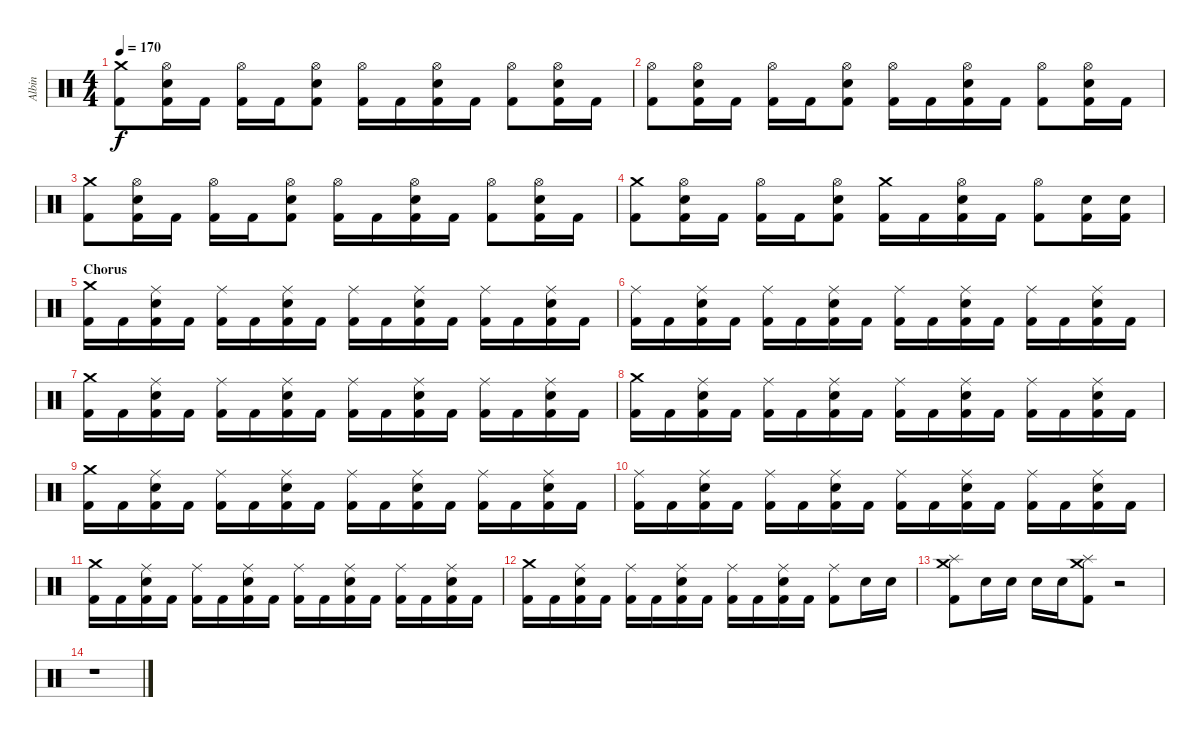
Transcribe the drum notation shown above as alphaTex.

\track ("Albin" "Albin") {instrument percussion}
\staff {score}
\articulation defaults
\ts (4 4)
\tempo 170
\clef neutral
\ks c
("Crash medium (hit)" "Kick (hit) 2").8{dy f} ("Hi-Hat (open)" "Electric Snare (hit)" "Kick (hit) 2").16 "Kick (hit) 2".16 ("Hi-Hat (open)" "Kick (hit) 2").16 "Kick (hit) 2".16 ("Hi-Hat (open)" "Electric Snare (hit)" "Kick (hit) 2").8 ("Hi-Hat (open)" "Kick (hit) 2").16 "Kick (hit) 2".16 ("Hi-Hat (open)" "Electric Snare (hit)" "Kick (hit) 2").16 "Kick (hit) 2".16 ("Hi-Hat (open)" "Kick (hit) 2").8 ("Hi-Hat (open)" "Electric Snare (hit)" "Kick (hit) 2").16 "Kick (hit) 2".16 |
("Hi-Hat (open)" "Kick (hit) 2").8 ("Hi-Hat (open)" "Electric Snare (hit)" "Kick (hit) 2").16 "Kick (hit) 2".16 ("Hi-Hat (open)" "Kick (hit) 2").16 "Kick (hit) 2".16 ("Hi-Hat (open)" "Electric Snare (hit)" "Kick (hit) 2").8 ("Hi-Hat (open)" "Kick (hit) 2").16 "Kick (hit) 2".16 ("Hi-Hat (open)" "Electric Snare (hit)" "Kick (hit) 2").16 "Kick (hit) 2".16 ("Hi-Hat (open)" "Kick (hit) 2").8 ("Hi-Hat (open)" "Electric Snare (hit)" "Kick (hit) 2").16 "Kick (hit) 2".16 |
("Crash medium (hit)" "Kick (hit) 2").8 ("Hi-Hat (open)" "Electric Snare (hit)" "Kick (hit) 2").16 "Kick (hit) 2".16 ("Hi-Hat (open)" "Kick (hit) 2").16 "Kick (hit) 2".16 ("Hi-Hat (open)" "Electric Snare (hit)" "Kick (hit) 2").8 ("Hi-Hat (open)" "Kick (hit) 2").16 "Kick (hit) 2".16 ("Hi-Hat (open)" "Electric Snare (hit)" "Kick (hit) 2").16 "Kick (hit) 2".16 ("Hi-Hat (open)" "Kick (hit) 2").8 ("Hi-Hat (open)" "Electric Snare (hit)" "Kick (hit) 2").16 "Kick (hit) 2".16 |
("Crash medium (hit)" "Kick (hit) 2").8 ("Hi-Hat (open)" "Electric Snare (hit)" "Kick (hit) 2").16 "Kick (hit) 2".16 ("Hi-Hat (open)" "Kick (hit) 2").16 "Kick (hit) 2".16 ("Hi-Hat (open)" "Electric Snare (hit)" "Kick (hit) 2").8 ("Crash medium (hit)" "Kick (hit) 2").16 "Kick (hit) 2".16 ("Hi-Hat (open)" "Electric Snare (hit)" "Kick (hit) 2").16 "Kick (hit) 2".16 ("Hi-Hat (open)" "Kick (hit) 2").8 ("Electric Snare (hit)" "Kick (hit) 2").16 ("Electric Snare (hit)" "Kick (hit) 2").16 |
\section ("" "Chorus")
("Crash medium (hit)" "Kick (hit) 2").16 "Kick (hit) 2".16 ("Ride (middle)" "Electric Snare (hit)" "Kick (hit) 2").16 "Kick (hit) 2".16 ("Ride (middle)" "Kick (hit) 2").16 "Kick (hit) 2".16 ("Ride (middle)" "Electric Snare (hit)" "Kick (hit) 2").16 "Kick (hit) 2".16 ("Ride (middle)" "Kick (hit) 2").16 "Kick (hit) 2".16 ("Ride (middle)" "Electric Snare (hit)" "Kick (hit) 2").16 "Kick (hit) 2".16 ("Ride (middle)" "Kick (hit) 2").16 "Kick (hit) 2".16 ("Ride (middle)" "Electric Snare (hit)" "Kick (hit) 2").16 "Kick (hit) 2".16 |
("Ride (middle)" "Kick (hit) 2").16 "Kick (hit) 2".16 ("Ride (middle)" "Electric Snare (hit)" "Kick (hit) 2").16 "Kick (hit) 2".16 ("Ride (middle)" "Kick (hit) 2").16 "Kick (hit) 2".16 ("Ride (middle)" "Electric Snare (hit)" "Kick (hit) 2").16 "Kick (hit) 2".16 ("Ride (middle)" "Kick (hit) 2").16 "Kick (hit) 2".16 ("Ride (middle)" "Electric Snare (hit)" "Kick (hit) 2").16 "Kick (hit) 2".16 ("Ride (middle)" "Kick (hit) 2").16 "Kick (hit) 2".16 ("Ride (middle)" "Electric Snare (hit)" "Kick (hit) 2").16 "Kick (hit) 2".16 |
("Crash medium (hit)" "Kick (hit) 2").16 "Kick (hit) 2".16 ("Ride (middle)" "Electric Snare (hit)" "Kick (hit) 2").16 "Kick (hit) 2".16 ("Ride (middle)" "Kick (hit) 2").16 "Kick (hit) 2".16 ("Ride (middle)" "Electric Snare (hit)" "Kick (hit) 2").16 "Kick (hit) 2".16 ("Ride (middle)" "Kick (hit) 2").16 "Kick (hit) 2".16 ("Ride (middle)" "Electric Snare (hit)" "Kick (hit) 2").16 "Kick (hit) 2".16 ("Ride (middle)" "Kick (hit) 2").16 "Kick (hit) 2".16 ("Ride (middle)" "Electric Snare (hit)" "Kick (hit) 2").16 "Kick (hit) 2".16 |
("Crash medium (hit)" "Kick (hit) 2").16 "Kick (hit) 2".16 ("Ride (middle)" "Electric Snare (hit)" "Kick (hit) 2").16 "Kick (hit) 2".16 ("Ride (middle)" "Kick (hit) 2").16 "Kick (hit) 2".16 ("Ride (middle)" "Electric Snare (hit)" "Kick (hit) 2").16 "Kick (hit) 2".16 ("Ride (middle)" "Kick (hit) 2").16 "Kick (hit) 2".16 ("Ride (middle)" "Electric Snare (hit)" "Kick (hit) 2").16 "Kick (hit) 2".16 ("Ride (middle)" "Kick (hit) 2").16 "Kick (hit) 2".16 ("Ride (middle)" "Electric Snare (hit)" "Kick (hit) 2").16 "Kick (hit) 2".16 |
("Crash medium (hit)" "Kick (hit) 2").16 "Kick (hit) 2".16 ("Ride (middle)" "Electric Snare (hit)" "Kick (hit) 2").16 "Kick (hit) 2".16 ("Ride (middle)" "Kick (hit) 2").16 "Kick (hit) 2".16 ("Ride (middle)" "Electric Snare (hit)" "Kick (hit) 2").16 "Kick (hit) 2".16 ("Ride (middle)" "Kick (hit) 2").16 "Kick (hit) 2".16 ("Ride (middle)" "Electric Snare (hit)" "Kick (hit) 2").16 "Kick (hit) 2".16 ("Ride (middle)" "Kick (hit) 2").16 "Kick (hit) 2".16 ("Ride (middle)" "Electric Snare (hit)" "Kick (hit) 2").16 "Kick (hit) 2".16 |
("Ride (middle)" "Kick (hit) 2").16 "Kick (hit) 2".16 ("Ride (middle)" "Electric Snare (hit)" "Kick (hit) 2").16 "Kick (hit) 2".16 ("Ride (middle)" "Kick (hit) 2").16 "Kick (hit) 2".16 ("Ride (middle)" "Electric Snare (hit)" "Kick (hit) 2").16 "Kick (hit) 2".16 ("Ride (middle)" "Kick (hit) 2").16 "Kick (hit) 2".16 ("Ride (middle)" "Electric Snare (hit)" "Kick (hit) 2").16 "Kick (hit) 2".16 ("Ride (middle)" "Kick (hit) 2").16 "Kick (hit) 2".16 ("Ride (middle)" "Electric Snare (hit)" "Kick (hit) 2").16 "Kick (hit) 2".16 |
("Crash medium (hit)" "Kick (hit) 2").16 "Kick (hit) 2".16 ("Ride (middle)" "Electric Snare (hit)" "Kick (hit) 2").16 "Kick (hit) 2".16 ("Ride (middle)" "Kick (hit) 2").16 "Kick (hit) 2".16 ("Ride (middle)" "Electric Snare (hit)" "Kick (hit) 2").16 "Kick (hit) 2".16 ("Ride (middle)" "Kick (hit) 2").16 "Kick (hit) 2".16 ("Ride (middle)" "Electric Snare (hit)" "Kick (hit) 2").16 "Kick (hit) 2".16 ("Ride (middle)" "Kick (hit) 2").16 "Kick (hit) 2".16 ("Ride (middle)" "Electric Snare (hit)" "Kick (hit) 2").16 "Kick (hit) 2".16 |
("Crash medium (hit)" "Kick (hit) 2").16 "Kick (hit) 2".16 ("Ride (middle)" "Electric Snare (hit)" "Kick (hit) 2").16 "Kick (hit) 2".16 ("Ride (middle)" "Kick (hit) 2").16 "Kick (hit) 2".16 ("Ride (middle)" "Electric Snare (hit)" "Kick (hit) 2").16 "Kick (hit) 2".16 ("Ride (middle)" "Kick (hit) 2").16 "Kick (hit) 2".16 ("Ride (middle)" "Electric Snare (hit)" "Kick (hit) 2").16 "Kick (hit) 2".16 ("Ride (middle)" "Kick (hit) 2").8 "Electric Snare (hit)".16 "Electric Snare (hit)".16 |
("Crash medium (hit)" "Splash (hit)" "Kick (hit) 2").8 "Electric Snare (hit)".16 "Electric Snare (hit)".16 "Electric Snare (hit)".16 "Electric Snare (hit)".16 ("Crash medium (hit)" "Splash (hit)" "Kick (hit) 2").8 r.2 |
r.1
